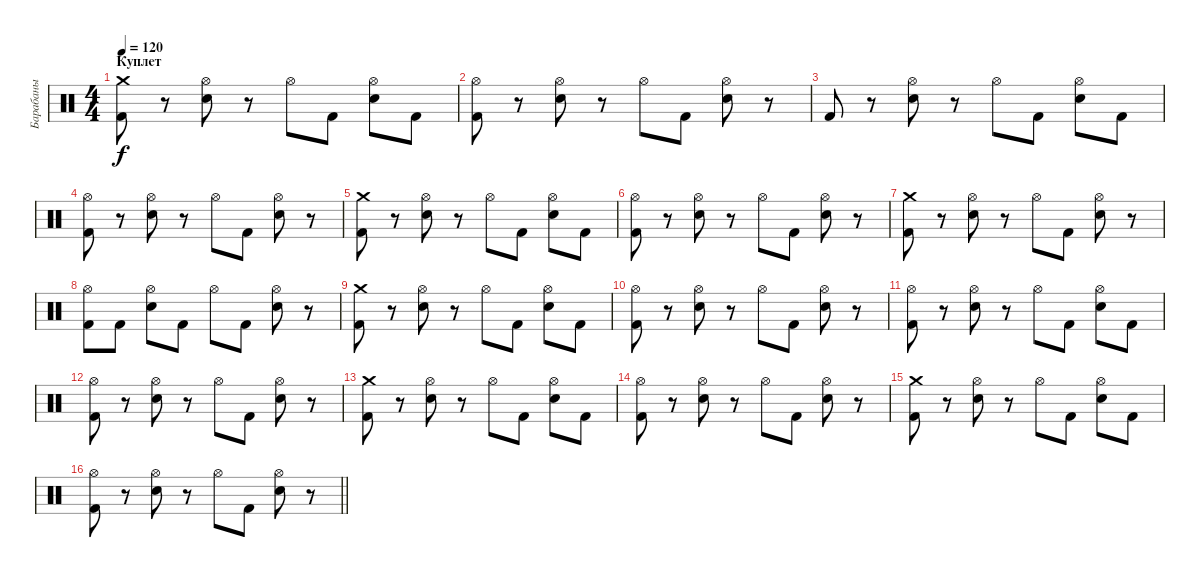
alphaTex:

\track ("Барабаны" "Барабаны") {instrument percussion}
\staff {score}
\articulation defaults
\ts (4 4)
\section ("" "Куплет")
\tempo 120
\clef neutral
\ks c
("Kick (hit) 2" "Crash medium (hit)").8{dy f} r.8 ("Hi-Hat (open)" "Snare (hit) 2").8 r.8 "Hi-Hat (open)".8 "Kick (hit) 2".8 ("Hi-Hat (open)" "Snare (hit) 2").8 "Kick (hit) 2".8 |
("Hi-Hat (open)" "Kick (hit) 2").8 r.8 ("Hi-Hat (open)" "Snare (hit) 2").8 r.8 "Hi-Hat (open)".8 "Kick (hit) 2".8 ("Hi-Hat (open)" "Snare (hit) 2").8 r.8 |
"Kick (hit) 2".8 r.8 ("Hi-Hat (open)" "Snare (hit) 2").8 r.8 "Hi-Hat (open)".8 "Kick (hit) 2".8 ("Hi-Hat (open)" "Snare (hit) 2").8 "Kick (hit) 2".8 |
("Hi-Hat (open)" "Kick (hit) 2").8 r.8 ("Hi-Hat (open)" "Snare (hit) 2").8 r.8 "Hi-Hat (open)".8 "Kick (hit) 2".8 ("Hi-Hat (open)" "Snare (hit) 2").8 r.8 |
("Kick (hit) 2" "Crash medium (hit)").8 r.8 ("Hi-Hat (open)" "Snare (hit) 2").8 r.8 "Hi-Hat (open)".8 "Kick (hit) 2".8 ("Hi-Hat (open)" "Snare (hit) 2").8 "Kick (hit) 2".8 |
("Hi-Hat (open)" "Kick (hit) 2").8 r.8 ("Hi-Hat (open)" "Snare (hit) 2").8 r.8 "Hi-Hat (open)".8 "Kick (hit) 2".8 ("Hi-Hat (open)" "Snare (hit) 2").8 r.8 |
("Kick (hit) 2" "Crash medium (hit)").8 r.8 ("Hi-Hat (open)" "Snare (hit) 2").8 r.8 "Hi-Hat (open)".8 "Kick (hit) 2".8 ("Hi-Hat (open)" "Snare (hit) 2").8 r.8 |
("Hi-Hat (open)" "Kick (hit) 2").8 "Kick (hit) 2".8 ("Hi-Hat (open)" "Snare (hit) 2").8 "Kick (hit) 2".8 "Hi-Hat (open)".8 "Kick (hit) 2".8 ("Hi-Hat (open)" "Snare (hit) 2").8 r.8 |
("Kick (hit) 2" "Crash medium (hit)").8 r.8 ("Hi-Hat (open)" "Snare (hit) 2").8 r.8 "Hi-Hat (open)".8 "Kick (hit) 2".8 ("Hi-Hat (open)" "Snare (hit) 2").8 "Kick (hit) 2".8 |
("Hi-Hat (open)" "Kick (hit) 2").8 r.8 ("Hi-Hat (open)" "Snare (hit) 2").8 r.8 "Hi-Hat (open)".8 "Kick (hit) 2".8 ("Hi-Hat (open)" "Snare (hit) 2").8 r.8 |
("Hi-Hat (open)" "Kick (hit) 2").8 r.8 ("Hi-Hat (open)" "Snare (hit) 2").8 r.8 "Hi-Hat (open)".8 "Kick (hit) 2".8 ("Hi-Hat (open)" "Snare (hit) 2").8 "Kick (hit) 2".8 |
("Hi-Hat (open)" "Kick (hit) 2").8 r.8 ("Hi-Hat (open)" "Snare (hit) 2").8 r.8 "Hi-Hat (open)".8 "Kick (hit) 2".8 ("Hi-Hat (open)" "Snare (hit) 2").8 r.8 |
("Kick (hit) 2" "Crash medium (hit)").8 r.8 ("Hi-Hat (open)" "Snare (hit) 2").8 r.8 "Hi-Hat (open)".8 "Kick (hit) 2".8 ("Hi-Hat (open)" "Snare (hit) 2").8 "Kick (hit) 2".8 |
("Hi-Hat (open)" "Kick (hit) 2").8 r.8 ("Hi-Hat (open)" "Snare (hit) 2").8 r.8 "Hi-Hat (open)".8 "Kick (hit) 2".8 ("Hi-Hat (open)" "Snare (hit) 2").8 r.8 |
("Kick (hit) 2" "Crash medium (hit)").8 r.8 ("Hi-Hat (open)" "Snare (hit) 2").8 r.8 "Hi-Hat (open)".8 "Kick (hit) 2".8 ("Hi-Hat (open)" "Snare (hit) 2").8 "Kick (hit) 2".8 |
\barLineRight lightlight
("Hi-Hat (open)" "Kick (hit) 2").8 r.8 ("Hi-Hat (open)" "Snare (hit) 2").8 r.8 "Hi-Hat (open)".8 "Kick (hit) 2".8 ("Hi-Hat (open)" "Snare (hit) 2").8 r.8
